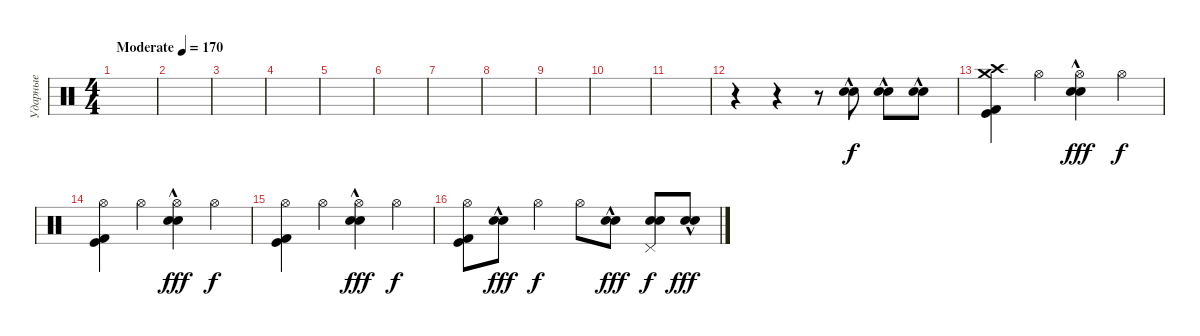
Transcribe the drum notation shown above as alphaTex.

\track ("Ударные" "Ударные") {instrument percussion}
\staff {score}
\articulation defaults
\ts (4 4)
\tempo (170 "Moderate")
\clef neutral
\ks c
|
|
|
|
|
|
|
|
|
|
|
r.4 r.4 r.8 ("Snare (hit) 2"{hac} "Electric Snare (hit)"{hac}).8 ("Snare (hit) 2"{hac} "Electric Snare (hit)"{hac}).8 ("Snare (hit) 2"{hac} "Electric Snare (hit)"{hac}).8 |
("Crash high (hit)" "Kick (hit)" "Kick (hit) 2" "Crash medium (hit)").4{dy f} "Hi-Hat (open)".4 ("Hi-Hat (open)" "Snare (hit) 2"{hac} "Electric Snare (hit)"{hac}).4{dy fff} "Hi-Hat (open)".4{dy f} |
("Hi-Hat (open)" "Kick (hit)" "Kick (hit) 2").4 "Hi-Hat (open)".4 ("Hi-Hat (open)" "Snare (hit) 2"{hac} "Electric Snare (hit)"{hac}).4{dy fff} "Hi-Hat (open)".4{dy f} |
("Hi-Hat (open)" "Kick (hit)" "Kick (hit) 2").4 "Hi-Hat (open)".4 ("Hi-Hat (open)" "Snare (hit) 2"{hac} "Electric Snare (hit)"{hac}).4{dy fff} "Hi-Hat (open)".4{dy f} |
("Hi-Hat (open)" "Kick (hit)" "Kick (hit) 2").8 ("Snare (hit) 2"{hac} "Electric Snare (hit)"{hac}).8{dy fff} "Hi-Hat (open)".4{dy f} "Hi-Hat (open)".8 ("Snare (hit) 2"{hac} "Electric Snare (hit)"{hac}).8{dy fff} ("Pedal Hi-Hat (hit)" "Snare (hit) 2" "Electric Snare (hit)").8{dy f} ("Snare (hit) 2"{hac} "Electric Snare (hit)"{hac}).8{dy fff}
